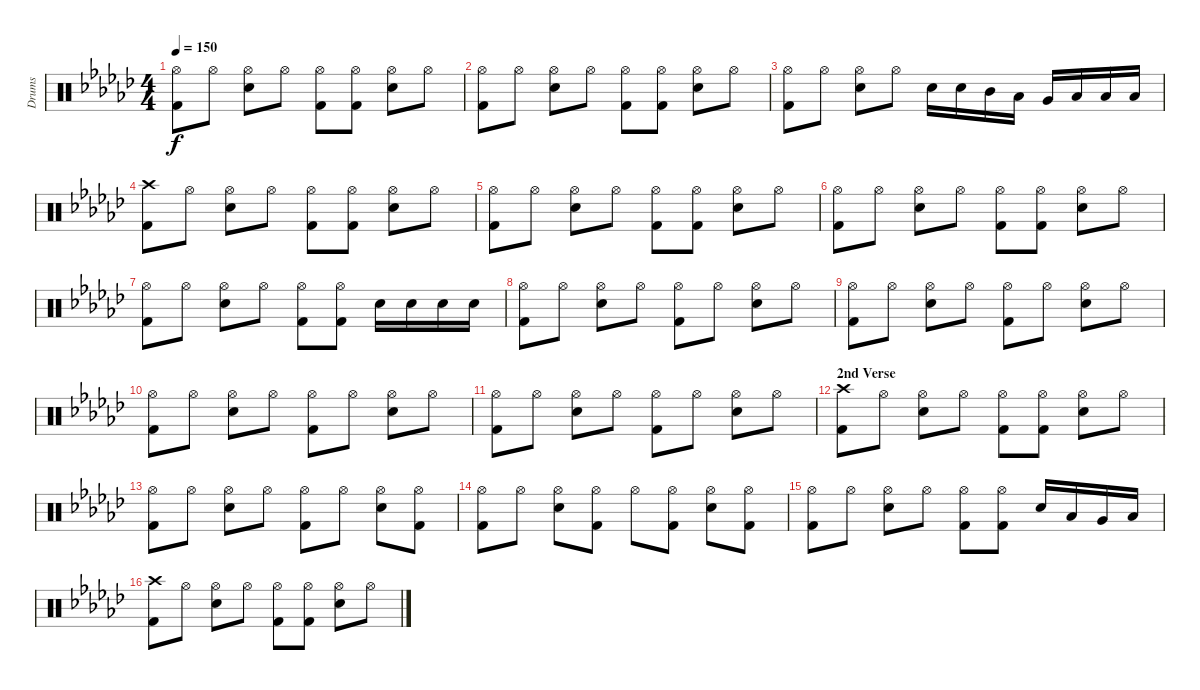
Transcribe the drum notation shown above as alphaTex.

\track ("Drums" "Drums") {instrument percussion}
\staff {score}
\articulation defaults
\ts (4 4)
\tempo 150
\clef neutral
\ks gb
("Hi-Hat (open)" "Kick (hit) 2").8{dy f} "Hi-Hat (open)".8 ("Hi-Hat (open)" "Electric Snare (hit)").8 "Hi-Hat (open)".8 ("Hi-Hat (open)" "Kick (hit) 2").8 ("Hi-Hat (open)" "Kick (hit) 2").8 ("Hi-Hat (open)" "Electric Snare (hit)").8 "Hi-Hat (open)".8 |
("Hi-Hat (open)" "Kick (hit) 2").8 "Hi-Hat (open)".8 ("Hi-Hat (open)" "Electric Snare (hit)").8 "Hi-Hat (open)".8 ("Hi-Hat (open)" "Kick (hit) 2").8 ("Hi-Hat (open)" "Kick (hit) 2").8 ("Hi-Hat (open)" "Electric Snare (hit)").8 "Hi-Hat (open)".8 |
("Hi-Hat (open)" "Kick (hit) 2").8 "Hi-Hat (open)".8 ("Hi-Hat (open)" "Electric Snare (hit)").8 "Hi-Hat (open)".8 "Electric Snare (hit)".16 "Electric Snare (hit)".16 "Mid Tom (hit)".16 "Low Tom (hit)".16 "Very Low Tom (hit)".16 "Low Floor Tom (hit)".16 "Low Floor Tom (hit)".16 "Low Floor Tom (hit)".16 |
("Crash high (hit)" "Kick (hit) 2").8 "Hi-Hat (open)".8 ("Hi-Hat (open)" "Electric Snare (hit)").8 "Hi-Hat (open)".8 ("Hi-Hat (open)" "Kick (hit) 2").8 ("Hi-Hat (open)" "Kick (hit) 2").8 ("Hi-Hat (open)" "Electric Snare (hit)").8 "Hi-Hat (open)".8 |
("Hi-Hat (open)" "Kick (hit) 2").8 "Hi-Hat (open)".8 ("Hi-Hat (open)" "Electric Snare (hit)").8 "Hi-Hat (open)".8 ("Hi-Hat (open)" "Kick (hit) 2").8 ("Hi-Hat (open)" "Kick (hit) 2").8 ("Hi-Hat (open)" "Electric Snare (hit)").8 "Hi-Hat (open)".8 |
("Hi-Hat (open)" "Kick (hit) 2").8 "Hi-Hat (open)".8 ("Hi-Hat (open)" "Electric Snare (hit)").8 "Hi-Hat (open)".8 ("Hi-Hat (open)" "Kick (hit) 2").8 ("Hi-Hat (open)" "Kick (hit) 2").8 ("Hi-Hat (open)" "Electric Snare (hit)").8 "Hi-Hat (open)".8 |
("Hi-Hat (open)" "Kick (hit) 2").8 "Hi-Hat (open)".8 ("Hi-Hat (open)" "Electric Snare (hit)").8 "Hi-Hat (open)".8 ("Hi-Hat (open)" "Kick (hit) 2").8 ("Hi-Hat (open)" "Kick (hit) 2").8 "Electric Snare (hit)".16 "Electric Snare (hit)".16 "Electric Snare (hit)".16 "Electric Snare (hit)".16 |
("Hi-Hat (open)" "Kick (hit) 2").8 "Hi-Hat (open)".8 ("Hi-Hat (open)" "Electric Snare (hit)").8 "Hi-Hat (open)".8 ("Hi-Hat (open)" "Kick (hit) 2").8 "Hi-Hat (open)".8 ("Hi-Hat (open)" "Electric Snare (hit)").8 "Hi-Hat (open)".8 |
("Hi-Hat (open)" "Kick (hit) 2").8 "Hi-Hat (open)".8 ("Hi-Hat (open)" "Electric Snare (hit)").8 "Hi-Hat (open)".8 ("Hi-Hat (open)" "Kick (hit) 2").8 "Hi-Hat (open)".8 ("Hi-Hat (open)" "Electric Snare (hit)").8 "Hi-Hat (open)".8 |
("Hi-Hat (open)" "Kick (hit) 2").8 "Hi-Hat (open)".8 ("Hi-Hat (open)" "Electric Snare (hit)").8 "Hi-Hat (open)".8 ("Hi-Hat (open)" "Kick (hit) 2").8 "Hi-Hat (open)".8 ("Hi-Hat (open)" "Electric Snare (hit)").8 "Hi-Hat (open)".8 |
("Hi-Hat (open)" "Kick (hit) 2").8 "Hi-Hat (open)".8 ("Hi-Hat (open)" "Electric Snare (hit)").8 "Hi-Hat (open)".8 ("Hi-Hat (open)" "Kick (hit) 2").8 "Hi-Hat (open)".8 ("Hi-Hat (open)" "Electric Snare (hit)").8 "Hi-Hat (open)".8 |
\section ("" "2nd Verse")
("Crash high (hit)" "Kick (hit) 2").8 "Hi-Hat (open)".8 ("Hi-Hat (open)" "Electric Snare (hit)").8 "Hi-Hat (open)".8 ("Hi-Hat (open)" "Kick (hit) 2").8 ("Hi-Hat (open)" "Kick (hit) 2").8 ("Hi-Hat (open)" "Electric Snare (hit)").8 "Hi-Hat (open)".8 |
("Hi-Hat (open)" "Kick (hit) 2").8 "Hi-Hat (open)".8 ("Hi-Hat (open)" "Electric Snare (hit)").8 "Hi-Hat (open)".8 ("Hi-Hat (open)" "Kick (hit) 2").8 "Hi-Hat (open)".8 ("Hi-Hat (open)" "Electric Snare (hit)").8 ("Hi-Hat (open)" "Kick (hit) 2").8 |
("Hi-Hat (open)" "Kick (hit) 2").8 "Hi-Hat (open)".8 ("Hi-Hat (open)" "Electric Snare (hit)").8 ("Hi-Hat (open)" "Kick (hit) 2").8 "Hi-Hat (open)".8 ("Hi-Hat (open)" "Kick (hit) 2").8 ("Hi-Hat (open)" "Electric Snare (hit)").8 ("Hi-Hat (open)" "Kick (hit) 2").8 |
("Hi-Hat (open)" "Kick (hit) 2").8 "Hi-Hat (open)".8 ("Hi-Hat (open)" "Electric Snare (hit)").8 "Hi-Hat (open)".8 ("Hi-Hat (open)" "Kick (hit) 2").8 ("Hi-Hat (open)" "Kick (hit) 2").8 "Electric Snare (hit)".16 "Low Tom (hit)".16 "Very Low Tom (hit)".16 "Low Floor Tom (hit)".16 |
("Crash high (hit)" "Kick (hit) 2").8 "Hi-Hat (open)".8 ("Hi-Hat (open)" "Electric Snare (hit)").8 "Hi-Hat (open)".8 ("Hi-Hat (open)" "Kick (hit) 2").8 ("Hi-Hat (open)" "Kick (hit) 2").8 ("Hi-Hat (open)" "Electric Snare (hit)").8 "Hi-Hat (open)".8
